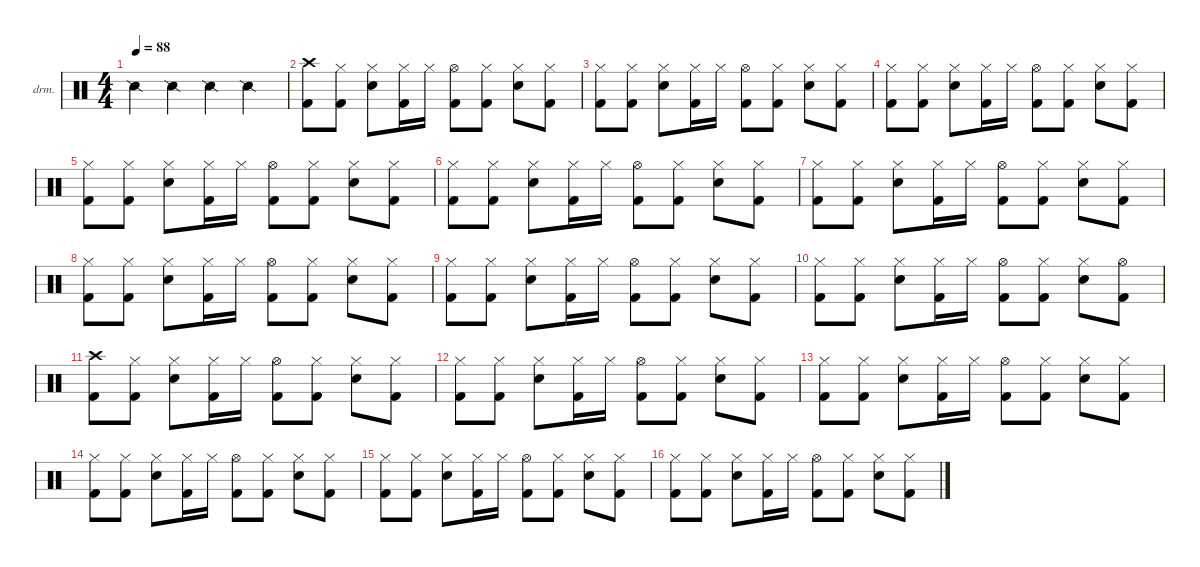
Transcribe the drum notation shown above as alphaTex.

\defaultSystemsLayout 4
\hideDynamics
\bracketExtendMode nobrackets
\firstSystemTrackNameOrientation horizontal
\otherSystemsTrackNameOrientation horizontal
\track ("Drums" "drm.") {instrument percussion}
\staff {score}
\articulation defaults
\ts (4 4)
\beaming (8 2 2 2 2)
\tempo 88
\clef neutral
\ks c "Snare (side stick) 2".4{dy f} "Snare (side stick) 2".4 "Snare (side stick) 2".4 "Snare (side stick) 2".4
|
("Crash high (hit)" "Kick (hit) 2").8 ("Hi-Hat (closed)" "Kick (hit) 2").8 ("Hi-Hat (closed)" "Snare (hit) 2").8 ("Hi-Hat (closed)" "Kick (hit) 2").16 "Hi-Hat (closed)".16 ("Hi-Hat (open)" "Kick (hit) 2").8 ("Hi-Hat (closed)" "Kick (hit) 2").8 ("Hi-Hat (closed)" "Snare (hit) 2").8 ("Hi-Hat (closed)" "Kick (hit) 2").8 |
("Hi-Hat (closed)" "Kick (hit) 2").8 ("Hi-Hat (closed)" "Kick (hit) 2").8 ("Hi-Hat (closed)" "Snare (hit) 2").8 ("Hi-Hat (closed)" "Kick (hit) 2").16 "Hi-Hat (closed)".16 ("Hi-Hat (open)" "Kick (hit) 2").8 ("Hi-Hat (closed)" "Kick (hit) 2").8 ("Hi-Hat (closed)" "Snare (hit) 2").8 ("Hi-Hat (closed)" "Kick (hit) 2").8 |
("Hi-Hat (closed)" "Kick (hit) 2").8 ("Hi-Hat (closed)" "Kick (hit) 2").8 ("Hi-Hat (closed)" "Snare (hit) 2").8 ("Hi-Hat (closed)" "Kick (hit) 2").16 "Hi-Hat (closed)".16 ("Hi-Hat (open)" "Kick (hit) 2").8 ("Hi-Hat (closed)" "Kick (hit) 2").8 ("Hi-Hat (closed)" "Snare (hit) 2").8 ("Hi-Hat (closed)" "Kick (hit) 2").8 |
("Hi-Hat (closed)" "Kick (hit) 2").8 ("Hi-Hat (closed)" "Kick (hit) 2").8 ("Hi-Hat (closed)" "Snare (hit) 2").8 ("Hi-Hat (closed)" "Kick (hit) 2").16 "Hi-Hat (closed)".16 ("Hi-Hat (open)" "Kick (hit) 2").8 ("Hi-Hat (closed)" "Kick (hit) 2").8 ("Hi-Hat (closed)" "Snare (hit) 2").8 ("Hi-Hat (closed)" "Kick (hit) 2").8 |
("Hi-Hat (closed)" "Kick (hit) 2").8 ("Hi-Hat (closed)" "Kick (hit) 2").8 ("Hi-Hat (closed)" "Snare (hit) 2").8 ("Hi-Hat (closed)" "Kick (hit) 2").16 "Hi-Hat (closed)".16 ("Hi-Hat (open)" "Kick (hit) 2").8 ("Hi-Hat (closed)" "Kick (hit) 2").8 ("Hi-Hat (closed)" "Snare (hit) 2").8 ("Hi-Hat (closed)" "Kick (hit) 2").8 |
("Hi-Hat (closed)" "Kick (hit) 2").8 ("Hi-Hat (closed)" "Kick (hit) 2").8 ("Hi-Hat (closed)" "Snare (hit) 2").8 ("Hi-Hat (closed)" "Kick (hit) 2").16 "Hi-Hat (closed)".16 ("Hi-Hat (open)" "Kick (hit) 2").8 ("Hi-Hat (closed)" "Kick (hit) 2").8 ("Hi-Hat (closed)" "Snare (hit) 2").8 ("Hi-Hat (closed)" "Kick (hit) 2").8 |
("Hi-Hat (closed)" "Kick (hit) 2").8 ("Hi-Hat (closed)" "Kick (hit) 2").8 ("Hi-Hat (closed)" "Snare (hit) 2").8 ("Hi-Hat (closed)" "Kick (hit) 2").16 "Hi-Hat (closed)".16 ("Hi-Hat (open)" "Kick (hit) 2").8 ("Hi-Hat (closed)" "Kick (hit) 2").8 ("Hi-Hat (closed)" "Snare (hit) 2").8 ("Hi-Hat (closed)" "Kick (hit) 2").8 |
("Hi-Hat (closed)" "Kick (hit) 2").8 ("Hi-Hat (closed)" "Kick (hit) 2").8 ("Hi-Hat (closed)" "Snare (hit) 2").8 ("Hi-Hat (closed)" "Kick (hit) 2").16 "Hi-Hat (closed)".16 ("Hi-Hat (open)" "Kick (hit) 2").8 ("Hi-Hat (closed)" "Kick (hit) 2").8 ("Hi-Hat (closed)" "Snare (hit) 2").8 ("Hi-Hat (closed)" "Kick (hit) 2").8 |
("Hi-Hat (closed)" "Kick (hit) 2").8 ("Hi-Hat (closed)" "Kick (hit) 2").8 ("Hi-Hat (closed)" "Snare (hit) 2").8 ("Hi-Hat (closed)" "Kick (hit) 2").16 "Hi-Hat (closed)".16 ("Hi-Hat (open)" "Kick (hit) 2").8 ("Hi-Hat (closed)" "Kick (hit) 2").8 ("Hi-Hat (closed)" "Snare (hit) 2").8 ("Hi-Hat (open)" "Kick (hit) 2").8 |
("Crash high (hit)" "Kick (hit) 2").8 ("Hi-Hat (closed)" "Kick (hit) 2").8 ("Hi-Hat (closed)" "Snare (hit) 2").8 ("Hi-Hat (closed)" "Kick (hit) 2").16 "Hi-Hat (closed)".16 ("Hi-Hat (open)" "Kick (hit) 2").8 ("Hi-Hat (closed)" "Kick (hit) 2").8 ("Hi-Hat (closed)" "Snare (hit) 2").8 ("Hi-Hat (closed)" "Kick (hit) 2").8 |
("Hi-Hat (closed)" "Kick (hit) 2").8 ("Hi-Hat (closed)" "Kick (hit) 2").8 ("Hi-Hat (closed)" "Snare (hit) 2").8 ("Hi-Hat (closed)" "Kick (hit) 2").16 "Hi-Hat (closed)".16 ("Hi-Hat (open)" "Kick (hit) 2").8 ("Hi-Hat (closed)" "Kick (hit) 2").8 ("Hi-Hat (closed)" "Snare (hit) 2").8 ("Hi-Hat (closed)" "Kick (hit) 2").8 |
("Hi-Hat (closed)" "Kick (hit) 2").8 ("Hi-Hat (closed)" "Kick (hit) 2").8 ("Hi-Hat (closed)" "Snare (hit) 2").8 ("Hi-Hat (closed)" "Kick (hit) 2").16 "Hi-Hat (closed)".16 ("Hi-Hat (open)" "Kick (hit) 2").8 ("Hi-Hat (closed)" "Kick (hit) 2").8 ("Hi-Hat (closed)" "Snare (hit) 2").8 ("Hi-Hat (closed)" "Kick (hit) 2").8 |
("Hi-Hat (closed)" "Kick (hit) 2").8 ("Hi-Hat (closed)" "Kick (hit) 2").8 ("Hi-Hat (closed)" "Snare (hit) 2").8 ("Hi-Hat (closed)" "Kick (hit) 2").16 "Hi-Hat (closed)".16 ("Hi-Hat (open)" "Kick (hit) 2").8 ("Hi-Hat (closed)" "Kick (hit) 2").8 ("Hi-Hat (closed)" "Snare (hit) 2").8 ("Hi-Hat (closed)" "Kick (hit) 2").8 |
("Hi-Hat (closed)" "Kick (hit) 2").8 ("Hi-Hat (closed)" "Kick (hit) 2").8 ("Hi-Hat (closed)" "Snare (hit) 2").8 ("Hi-Hat (closed)" "Kick (hit) 2").16 "Hi-Hat (closed)".16 ("Hi-Hat (open)" "Kick (hit) 2").8 ("Hi-Hat (closed)" "Kick (hit) 2").8 ("Hi-Hat (closed)" "Snare (hit) 2").8 ("Hi-Hat (closed)" "Kick (hit) 2").8 |
("Hi-Hat (closed)" "Kick (hit) 2").8 ("Hi-Hat (closed)" "Kick (hit) 2").8 ("Hi-Hat (closed)" "Snare (hit) 2").8 ("Hi-Hat (closed)" "Kick (hit) 2").16 "Hi-Hat (closed)".16 ("Hi-Hat (open)" "Kick (hit) 2").8 ("Hi-Hat (closed)" "Kick (hit) 2").8 ("Hi-Hat (closed)" "Snare (hit) 2").8 ("Hi-Hat (closed)" "Kick (hit) 2").8
